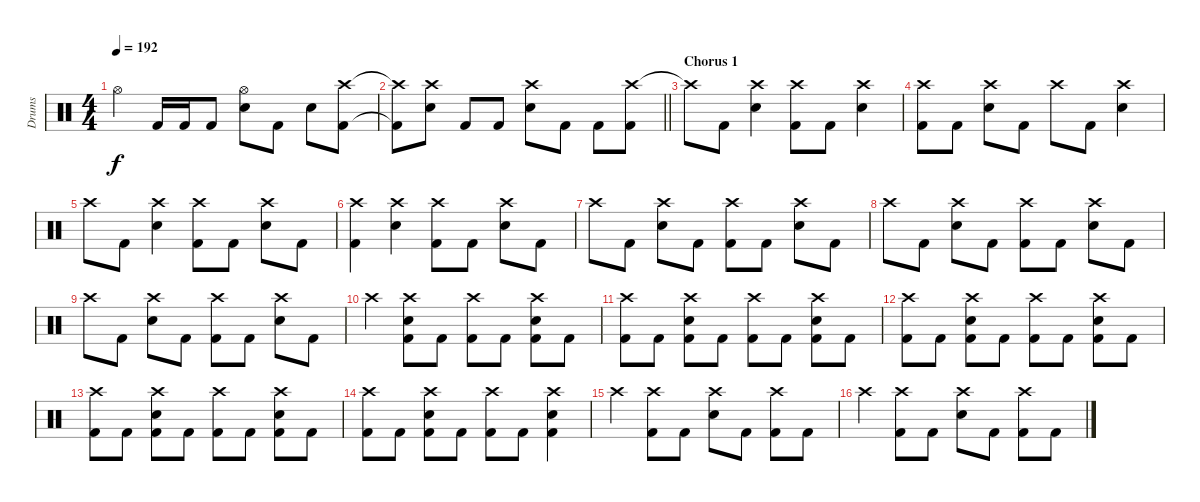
\track ("Drums" "Drums") {instrument percussion}
\staff {score}
\articulation defaults
\ts (4 4)
\tempo 192
\clef neutral
\ks c "Hi-Hat (open)".4{dy f} "Kick (hit) 2".16 "Kick (hit) 2".16 "Kick (hit) 2".8
("Hi-Hat (open)" "Electric Snare (hit)").8 "Kick (hit) 2".8 "Electric Snare (hit)".8 ("Crash high (hit)" "Kick (hit) 2").8 |
\barLineRight lightlight
("Crash high (hit)"{t} "Kick (hit) 2"{t}).8 ("Crash high (hit)" "Electric Snare (hit)").8 "Kick (hit) 2".8 "Kick (hit) 2".8 ("Crash high (hit)" "Electric Snare (hit)").8 "Kick (hit) 2".8 "Kick (hit) 2".8 ("Crash high (hit)" "Kick (hit) 2").8 |
\section ("" "Chorus 1")
"Crash high (hit)"{t}.8 "Kick (hit) 2".8 ("Crash high (hit)" "Electric Snare (hit)").4 ("Crash high (hit)" "Kick (hit) 2").8 "Kick (hit) 2".8 ("Crash high (hit)" "Electric Snare (hit)").4 |
("Crash high (hit)" "Kick (hit) 2").8 "Kick (hit) 2".8 ("Crash high (hit)" "Electric Snare (hit)").8 "Kick (hit) 2".8 "Crash high (hit)".8 "Kick (hit) 2".8 ("Crash high (hit)" "Electric Snare (hit)").4 |
"Crash high (hit)".8 "Kick (hit) 2".8 ("Crash high (hit)" "Electric Snare (hit)").4 ("Crash high (hit)" "Kick (hit) 2").8 "Kick (hit) 2".8 ("Crash high (hit)" "Electric Snare (hit)").8 "Kick (hit) 2".8 |
("Crash high (hit)" "Kick (hit) 2").4 ("Crash high (hit)" "Electric Snare (hit)").4 ("Crash high (hit)" "Kick (hit) 2").8 "Kick (hit) 2".8 ("Crash high (hit)" "Electric Snare (hit)").8 "Kick (hit) 2".8 |
"Crash high (hit)".8 "Kick (hit) 2".8 ("Crash high (hit)" "Electric Snare (hit)").8 "Kick (hit) 2".8 ("Crash high (hit)" "Kick (hit) 2").8 "Kick (hit) 2".8 ("Crash high (hit)" "Electric Snare (hit)").8 "Kick (hit) 2".8 |
"Crash high (hit)".8 "Kick (hit) 2".8 ("Crash high (hit)" "Electric Snare (hit)").8 "Kick (hit) 2".8 ("Crash high (hit)" "Kick (hit) 2").8 "Kick (hit) 2".8 ("Crash high (hit)" "Electric Snare (hit)").8 "Kick (hit) 2".8 |
"Crash high (hit)".8 "Kick (hit) 2".8 ("Crash high (hit)" "Electric Snare (hit)").8 "Kick (hit) 2".8 ("Crash high (hit)" "Kick (hit) 2").8 "Kick (hit) 2".8 ("Crash high (hit)" "Electric Snare (hit)").8 "Kick (hit) 2".8 |
"Crash high (hit)".4 ("Crash high (hit)" "Electric Snare (hit)" "Kick (hit) 2").8 "Kick (hit) 2".8 ("Crash high (hit)" "Kick (hit) 2").8 "Kick (hit) 2".8 ("Crash high (hit)" "Electric Snare (hit)" "Kick (hit) 2").8 "Kick (hit) 2".8 |
("Crash high (hit)" "Kick (hit) 2").8 "Kick (hit) 2".8 ("Crash high (hit)" "Electric Snare (hit)" "Kick (hit) 2").8 "Kick (hit) 2".8 ("Crash high (hit)" "Kick (hit) 2").8 "Kick (hit) 2".8 ("Crash high (hit)" "Electric Snare (hit)" "Kick (hit) 2").8 "Kick (hit) 2".8 |
("Crash high (hit)" "Kick (hit) 2").8 "Kick (hit) 2".8 ("Crash high (hit)" "Electric Snare (hit)" "Kick (hit) 2").8 "Kick (hit) 2".8 ("Crash high (hit)" "Kick (hit) 2").8 "Kick (hit) 2".8 ("Crash high (hit)" "Electric Snare (hit)" "Kick (hit) 2").8 "Kick (hit) 2".8 |
("Crash high (hit)" "Kick (hit) 2").8 "Kick (hit) 2".8 ("Crash high (hit)" "Electric Snare (hit)" "Kick (hit) 2").8 "Kick (hit) 2".8 ("Crash high (hit)" "Kick (hit) 2").8 "Kick (hit) 2".8 ("Crash high (hit)" "Electric Snare (hit)" "Kick (hit) 2").8 "Kick (hit) 2".8 |
("Crash high (hit)" "Kick (hit) 2").8 "Kick (hit) 2".8 ("Crash high (hit)" "Electric Snare (hit)" "Kick (hit) 2").8 "Kick (hit) 2".8 ("Crash high (hit)" "Kick (hit) 2").8 "Kick (hit) 2".8 ("Crash high (hit)" "Electric Snare (hit)" "Kick (hit) 2").4 |
"Crash high (hit)".4 ("Crash high (hit)" "Kick (hit) 2").8 "Kick (hit) 2".8 ("Crash high (hit)" "Electric Snare (hit)").8 "Kick (hit) 2".8 ("Crash high (hit)" "Kick (hit) 2").8 "Kick (hit) 2".8 |
"Crash high (hit)".4 ("Crash high (hit)" "Kick (hit) 2").8 "Kick (hit) 2".8 ("Crash high (hit)" "Electric Snare (hit)").8 "Kick (hit) 2".8 ("Crash high (hit)" "Kick (hit) 2").8 "Kick (hit) 2".8
